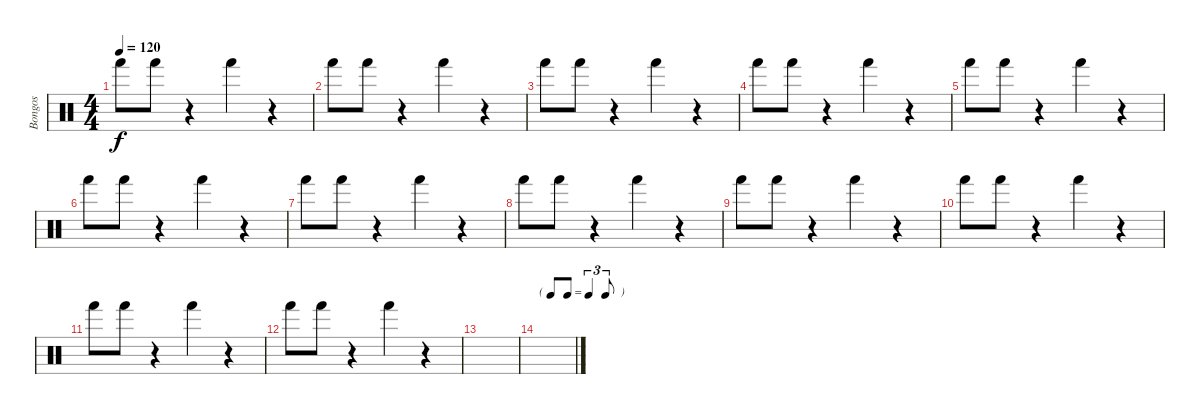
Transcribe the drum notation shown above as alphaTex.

\track ("Bongos" "Bongos") {instrument percussion}
\staff {score}
\articulation defaults
\ts (4 4)
\tempo 120
\clef neutral
\ks c "Hand (hit)".8{dy f} "Hand (hit)".8
r.4 "Hand (hit)".4 r.4 |
"Hand (hit)".8 "Hand (hit)".8 r.4 "Hand (hit)".4 r.4 |
"Hand (hit)".8 "Hand (hit)".8 r.4 "Hand (hit)".4 r.4 |
"Hand (hit)".8 "Hand (hit)".8 r.4 "Hand (hit)".4 r.4 |
"Hand (hit)".8 "Hand (hit)".8 r.4 "Hand (hit)".4 r.4 |
"Hand (hit)".8 "Hand (hit)".8 r.4 "Hand (hit)".4 r.4 |
"Hand (hit)".8 "Hand (hit)".8 r.4 "Hand (hit)".4 r.4 |
"Hand (hit)".8 "Hand (hit)".8 r.4 "Hand (hit)".4 r.4 |
"Hand (hit)".8 "Hand (hit)".8 r.4 "Hand (hit)".4 r.4 |
"Hand (hit)".8 "Hand (hit)".8 r.4 "Hand (hit)".4 r.4 |
"Hand (hit)".8 "Hand (hit)".8 r.4 "Hand (hit)".4 r.4 |
"Hand (hit)".8 "Hand (hit)".8 r.4 "Hand (hit)".4 r.4 |
|
\tf triplet8th
